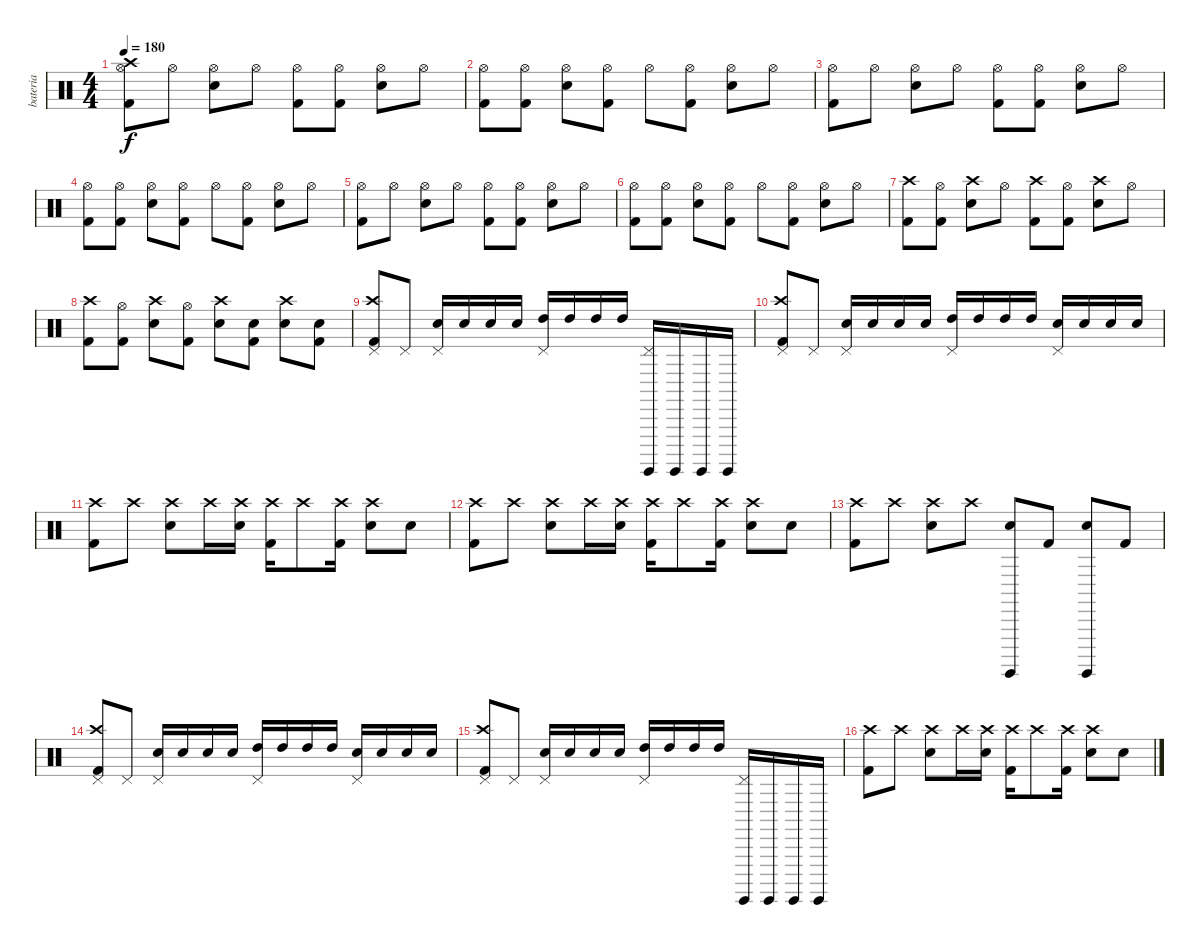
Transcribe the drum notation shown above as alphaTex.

\track ("bateria" "bateria") {instrument percussion}
\staff {score}
\articulation defaults
\ts (4 4)
\tempo 180
\clef neutral
\ks c
("Hi-Hat (open)" "Kick (hit) 2" "Crash high (hit)").8{dy f} "Hi-Hat (open)"{x}.8 ("Hi-Hat (open)" "Electric Snare (hit)").8 "Hi-Hat (open)"{x}.8 ("Hi-Hat (open)" "Kick (hit) 2").8 ("Hi-Hat (open)"{x} "Kick (hit) 2").8 ("Hi-Hat (open)" "Electric Snare (hit)").8 "Hi-Hat (open)"{x}.8 |
("Hi-Hat (open)" "Kick (hit) 2").8 ("Hi-Hat (open)"{x} "Kick (hit) 2").8 ("Hi-Hat (open)" "Electric Snare (hit)").8 ("Hi-Hat (open)"{x} "Kick (hit) 2").8 "Hi-Hat (open)".8 ("Hi-Hat (open)"{x} "Kick (hit) 2").8 ("Hi-Hat (open)" "Electric Snare (hit)").8 "Hi-Hat (open)"{x}.8 |
("Hi-Hat (open)" "Kick (hit) 2").8 "Hi-Hat (open)"{x}.8 ("Hi-Hat (open)" "Electric Snare (hit)").8 "Hi-Hat (open)"{x}.8 ("Hi-Hat (open)" "Kick (hit) 2").8 ("Hi-Hat (open)"{x} "Kick (hit) 2").8 ("Hi-Hat (open)" "Electric Snare (hit)").8 "Hi-Hat (open)"{x}.8 |
("Hi-Hat (open)" "Kick (hit) 2").8 ("Hi-Hat (open)"{x} "Kick (hit) 2").8 ("Hi-Hat (open)" "Electric Snare (hit)").8 ("Hi-Hat (open)"{x} "Kick (hit) 2").8 "Hi-Hat (open)".8 ("Hi-Hat (open)"{x} "Kick (hit) 2").8 ("Hi-Hat (open)" "Electric Snare (hit)").8 "Hi-Hat (open)"{x}.8 |
("Hi-Hat (open)" "Kick (hit) 2").8 "Hi-Hat (open)"{x}.8 ("Hi-Hat (open)" "Electric Snare (hit)").8 "Hi-Hat (open)"{x}.8 ("Hi-Hat (open)" "Kick (hit) 2").8 ("Hi-Hat (open)"{x} "Kick (hit) 2").8 ("Hi-Hat (open)" "Electric Snare (hit)").8 "Hi-Hat (open)"{x}.8 |
("Hi-Hat (open)" "Kick (hit) 2").8 ("Hi-Hat (open)"{x} "Kick (hit) 2").8 ("Hi-Hat (open)" "Electric Snare (hit)").8 ("Hi-Hat (open)"{x} "Kick (hit) 2").8 "Hi-Hat (open)".8 ("Hi-Hat (open)"{x} "Kick (hit) 2").8 ("Hi-Hat (open)" "Electric Snare (hit)").8 "Hi-Hat (open)"{x}.8 |
("Crash high (hit)" "Kick (hit) 2").8 ("Hi-Hat (open)"{x} "Kick (hit) 2").8 ("Crash high (hit)" "Electric Snare (hit)").8 "Hi-Hat (open)"{x}.8 ("Crash high (hit)" "Kick (hit) 2").8 ("Hi-Hat (open)"{x} "Kick (hit) 2").8 ("Crash high (hit)" "Electric Snare (hit)").8 "Hi-Hat (open)"{x}.8 |
("Crash high (hit)" "Kick (hit) 2").8 ("Hi-Hat (open)"{x} "Kick (hit) 2").8 ("Crash high (hit)" "Electric Snare (hit)").8 ("Hi-Hat (open)"{x} "Kick (hit) 2").8 ("Crash high (hit)" "Electric Snare (hit)").8 ("Electric Snare (hit)"{x} "Kick (hit) 2").8 ("Crash high (hit)" "Electric Snare (hit)").8 ("Electric Snare (hit)"{x} "Kick (hit) 2").8 |
("Pedal Hi-Hat (hit)" "Kick (hit) 2" "Crash high (hit)").8 "Pedal Hi-Hat (hit)"{x}.8 ("Pedal Hi-Hat (hit)" "Electric Snare (hit)").16 "Electric Snare (hit)".16 "Electric Snare (hit)".16 "Electric Snare (hit)".16 ("Pedal Hi-Hat (hit)" "High Tom (hit)").16 "High Tom (hit)".16 "High Tom (hit)".16 "High Tom (hit)".16 ("Pedal Hi-Hat (hit)" "Surdo (hit)").16 "Surdo (hit)".16 "Surdo (hit)".16 "Surdo (hit)".16 |
("Pedal Hi-Hat (hit)" "Kick (hit) 2" "Crash high (hit)").8 "Pedal Hi-Hat (hit)"{x}.8 ("Pedal Hi-Hat (hit)" "Electric Snare (hit)").16 "Electric Snare (hit)".16 "Electric Snare (hit)".16 "Electric Snare (hit)".16 ("Pedal Hi-Hat (hit)" "High Tom (hit)").16 "High Tom (hit)".16 "High Tom (hit)".16 "High Tom (hit)".16 ("Pedal Hi-Hat (hit)" "Electric Snare (hit)").16 "Electric Snare (hit)".16 "Electric Snare (hit)".16 "Electric Snare (hit)".16 |
("Crash high (hit)" "Kick (hit) 2").8 "Crash high (hit)"{x}.8 ("Crash high (hit)" "Electric Snare (hit)").8 "Crash high (hit)"{x}.16 ("Crash high (hit)"{x} "Electric Snare (hit)").16 ("Crash high (hit)" "Kick (hit) 2").16 "Crash high (hit)"{x}.8 ("Crash high (hit)"{x} "Kick (hit) 2").16 ("Crash high (hit)" "Electric Snare (hit)").8 "Snare (hit)"{x}.8 |
("Crash high (hit)" "Kick (hit) 2").8 "Crash high (hit)"{x}.8 ("Crash high (hit)" "Electric Snare (hit)").8 "Crash high (hit)"{x}.16 ("Crash high (hit)"{x} "Electric Snare (hit)").16 ("Crash high (hit)" "Kick (hit) 2").16 "Crash high (hit)"{x}.8 ("Crash high (hit)"{x} "Kick (hit) 2").16 ("Crash high (hit)" "Electric Snare (hit)").8 "Snare (hit)"{x}.8 |
("Crash high (hit)" "Kick (hit) 2").8 "Crash high (hit)"{x}.8 ("Crash high (hit)" "Electric Snare (hit)").8 "Crash high (hit)"{x}.8 ("Surdo (hit)" "Electric Snare (hit)").8 "Kick (hit) 2".8 ("Surdo (hit)" "Electric Snare (hit)").8 "Kick (hit) 2".8 |
("Pedal Hi-Hat (hit)" "Kick (hit) 2" "Crash high (hit)").8 "Pedal Hi-Hat (hit)"{x}.8 ("Pedal Hi-Hat (hit)" "Electric Snare (hit)").16 "Electric Snare (hit)".16 "Electric Snare (hit)".16 "Electric Snare (hit)".16 ("Pedal Hi-Hat (hit)" "High Tom (hit)").16 "High Tom (hit)".16 "High Tom (hit)".16 "High Tom (hit)".16 ("Pedal Hi-Hat (hit)" "Electric Snare (hit)").16 "Electric Snare (hit)".16 "Electric Snare (hit)".16 "Electric Snare (hit)".16 |
("Pedal Hi-Hat (hit)" "Kick (hit) 2" "Crash high (hit)").8 "Pedal Hi-Hat (hit)"{x}.8 ("Pedal Hi-Hat (hit)" "Electric Snare (hit)").16 "Electric Snare (hit)".16 "Electric Snare (hit)".16 "Electric Snare (hit)".16 ("Pedal Hi-Hat (hit)" "High Tom (hit)").16 "High Tom (hit)".16 "High Tom (hit)".16 "High Tom (hit)".16 ("Pedal Hi-Hat (hit)" "Surdo (hit)").16 "Surdo (hit)".16 "Surdo (hit)".16 "Surdo (hit)".16 |
("Crash high (hit)" "Kick (hit) 2").8 "Crash high (hit)"{x}.8 ("Crash high (hit)" "Electric Snare (hit)").8 "Crash high (hit)"{x}.16 ("Crash high (hit)"{x} "Electric Snare (hit)").16 ("Crash high (hit)" "Kick (hit) 2").16 "Crash high (hit)"{x}.8 ("Crash high (hit)"{x} "Kick (hit) 2").16 ("Crash high (hit)" "Electric Snare (hit)").8 "Snare (hit)"{x}.8
